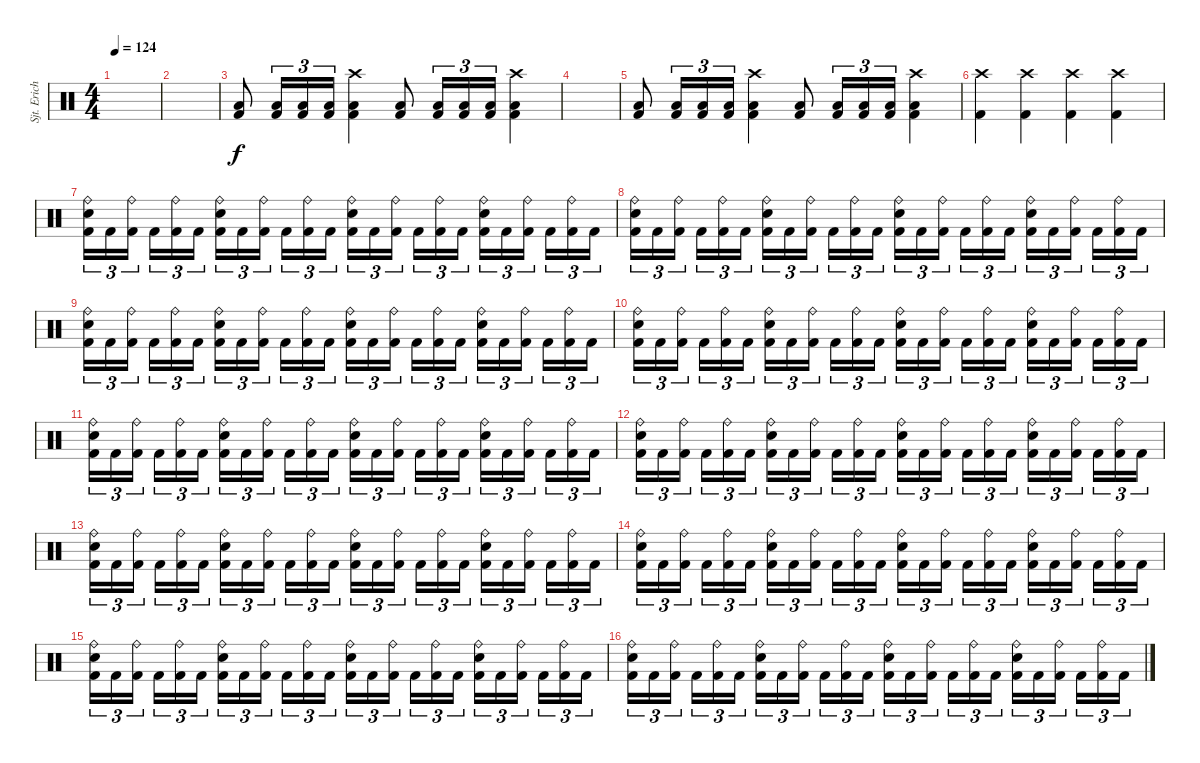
\track ("Sjt. Erichsen" "Sjt. Erich") {instrument percussion}
\staff {score}
\articulation defaults
\ts (4 4)
\tempo 124
\clef neutral
\ks c
|
|
("Low Floor Tom (hit)" "Kick (hit) 2").8 ("Low Floor Tom (hit)" "Kick (hit) 2").16{tu (3 2)} ("Low Floor Tom (hit)" "Kick (hit) 2").16{tu (3 2)} ("Low Floor Tom (hit)" "Kick (hit) 2").16{tu (3 2)} ("Crash high (hit)" "Low Floor Tom (hit)" "Kick (hit) 2").4 ("Low Floor Tom (hit)" "Kick (hit) 2").8 ("Low Floor Tom (hit)" "Kick (hit) 2").16{tu (3 2)} ("Low Floor Tom (hit)" "Kick (hit) 2").16{tu (3 2)} ("Low Floor Tom (hit)" "Kick (hit) 2").16{tu (3 2)} ("Crash high (hit)" "Low Floor Tom (hit)" "Kick (hit) 2").4 |
|
("Low Floor Tom (hit)" "Kick (hit) 2").8 ("Low Floor Tom (hit)" "Kick (hit) 2").16{tu (3 2)} ("Low Floor Tom (hit)" "Kick (hit) 2").16{tu (3 2)} ("Low Floor Tom (hit)" "Kick (hit) 2").16{tu (3 2)} ("Crash high (hit)" "Low Floor Tom (hit)" "Kick (hit) 2").4 ("Low Floor Tom (hit)" "Kick (hit) 2").8 ("Low Floor Tom (hit)" "Kick (hit) 2").16{tu (3 2)} ("Low Floor Tom (hit)" "Kick (hit) 2").16{tu (3 2)} ("Low Floor Tom (hit)" "Kick (hit) 2").16{tu (3 2)} ("Crash high (hit)" "Low Floor Tom (hit)" "Kick (hit) 2").4 |
("Crash high (hit)" "Kick (hit) 2").4 ("Crash high (hit)" "Kick (hit) 2").4 ("Crash high (hit)" "Kick (hit) 2").4 ("Crash high (hit)" "Kick (hit) 2").4 |
("Ride (bell)" "Electric Snare (hit)" "Kick (hit) 2").16{tu (3 2)} "Kick (hit) 2".16{tu (3 2)} ("Ride (bell)" "Kick (hit) 2").16{tu (3 2) beam splitsecondary} "Kick (hit) 2".16{tu (3 2)} ("Ride (bell)" "Kick (hit) 2").16{tu (3 2)} "Kick (hit) 2".16{tu (3 2)} ("Ride (bell)" "Electric Snare (hit)" "Kick (hit) 2").16{tu (3 2)} "Kick (hit) 2".16{tu (3 2)} ("Ride (bell)" "Kick (hit) 2").16{tu (3 2) beam splitsecondary} "Kick (hit) 2".16{tu (3 2)} ("Ride (bell)" "Kick (hit) 2").16{tu (3 2)} "Kick (hit) 2".16{tu (3 2)} ("Ride (bell)" "Electric Snare (hit)" "Kick (hit) 2").16{tu (3 2)} "Kick (hit) 2".16{tu (3 2)} ("Ride (bell)" "Kick (hit) 2").16{tu (3 2) beam splitsecondary} "Kick (hit) 2".16{tu (3 2)} ("Ride (bell)" "Kick (hit) 2").16{tu (3 2)} "Kick (hit) 2".16{tu (3 2)} ("Ride (bell)" "Electric Snare (hit)" "Kick (hit) 2").16{tu (3 2)} "Kick (hit) 2".16{tu (3 2)} ("Ride (bell)" "Kick (hit) 2").16{tu (3 2) beam splitsecondary} "Kick (hit) 2".16{tu (3 2)} ("Ride (bell)" "Kick (hit) 2").16{tu (3 2)} "Kick (hit) 2".16{tu (3 2)} |
("Ride (bell)" "Electric Snare (hit)" "Kick (hit) 2").16{tu (3 2)} "Kick (hit) 2".16{tu (3 2)} ("Ride (bell)" "Kick (hit) 2").16{tu (3 2) beam splitsecondary} "Kick (hit) 2".16{tu (3 2)} ("Ride (bell)" "Kick (hit) 2").16{tu (3 2)} "Kick (hit) 2".16{tu (3 2)} ("Ride (bell)" "Electric Snare (hit)" "Kick (hit) 2").16{tu (3 2)} "Kick (hit) 2".16{tu (3 2)} ("Ride (bell)" "Kick (hit) 2").16{tu (3 2) beam splitsecondary} "Kick (hit) 2".16{tu (3 2)} ("Ride (bell)" "Kick (hit) 2").16{tu (3 2)} "Kick (hit) 2".16{tu (3 2)} ("Ride (bell)" "Electric Snare (hit)" "Kick (hit) 2").16{tu (3 2)} "Kick (hit) 2".16{tu (3 2)} ("Ride (bell)" "Kick (hit) 2").16{tu (3 2) beam splitsecondary} "Kick (hit) 2".16{tu (3 2)} ("Ride (bell)" "Kick (hit) 2").16{tu (3 2)} "Kick (hit) 2".16{tu (3 2)} ("Ride (bell)" "Electric Snare (hit)" "Kick (hit) 2").16{tu (3 2)} "Kick (hit) 2".16{tu (3 2)} ("Ride (bell)" "Kick (hit) 2").16{tu (3 2) beam splitsecondary} "Kick (hit) 2".16{tu (3 2)} ("Ride (bell)" "Kick (hit) 2").16{tu (3 2)} "Kick (hit) 2".16{tu (3 2)} |
("Ride (bell)" "Electric Snare (hit)" "Kick (hit) 2").16{tu (3 2)} "Kick (hit) 2".16{tu (3 2)} ("Ride (bell)" "Kick (hit) 2").16{tu (3 2) beam splitsecondary} "Kick (hit) 2".16{tu (3 2)} ("Ride (bell)" "Kick (hit) 2").16{tu (3 2)} "Kick (hit) 2".16{tu (3 2)} ("Ride (bell)" "Electric Snare (hit)" "Kick (hit) 2").16{tu (3 2)} "Kick (hit) 2".16{tu (3 2)} ("Ride (bell)" "Kick (hit) 2").16{tu (3 2) beam splitsecondary} "Kick (hit) 2".16{tu (3 2)} ("Ride (bell)" "Kick (hit) 2").16{tu (3 2)} "Kick (hit) 2".16{tu (3 2)} ("Ride (bell)" "Electric Snare (hit)" "Kick (hit) 2").16{tu (3 2)} "Kick (hit) 2".16{tu (3 2)} ("Ride (bell)" "Kick (hit) 2").16{tu (3 2) beam splitsecondary} "Kick (hit) 2".16{tu (3 2)} ("Ride (bell)" "Kick (hit) 2").16{tu (3 2)} "Kick (hit) 2".16{tu (3 2)} ("Ride (bell)" "Electric Snare (hit)" "Kick (hit) 2").16{tu (3 2)} "Kick (hit) 2".16{tu (3 2)} ("Ride (bell)" "Kick (hit) 2").16{tu (3 2) beam splitsecondary} "Kick (hit) 2".16{tu (3 2)} ("Ride (bell)" "Kick (hit) 2").16{tu (3 2)} "Kick (hit) 2".16{tu (3 2)} |
("Ride (bell)" "Electric Snare (hit)" "Kick (hit) 2").16{tu (3 2)} "Kick (hit) 2".16{tu (3 2)} ("Ride (bell)" "Kick (hit) 2").16{tu (3 2) beam splitsecondary} "Kick (hit) 2".16{tu (3 2)} ("Ride (bell)" "Kick (hit) 2").16{tu (3 2)} "Kick (hit) 2".16{tu (3 2)} ("Ride (bell)" "Electric Snare (hit)" "Kick (hit) 2").16{tu (3 2)} "Kick (hit) 2".16{tu (3 2)} ("Ride (bell)" "Kick (hit) 2").16{tu (3 2) beam splitsecondary} "Kick (hit) 2".16{tu (3 2)} ("Ride (bell)" "Kick (hit) 2").16{tu (3 2)} "Kick (hit) 2".16{tu (3 2)} ("Ride (bell)" "Electric Snare (hit)" "Kick (hit) 2").16{tu (3 2)} "Kick (hit) 2".16{tu (3 2)} ("Ride (bell)" "Kick (hit) 2").16{tu (3 2) beam splitsecondary} "Kick (hit) 2".16{tu (3 2)} ("Ride (bell)" "Kick (hit) 2").16{tu (3 2)} "Kick (hit) 2".16{tu (3 2)} ("Ride (bell)" "Electric Snare (hit)" "Kick (hit) 2").16{tu (3 2)} "Kick (hit) 2".16{tu (3 2)} ("Ride (bell)" "Kick (hit) 2").16{tu (3 2) beam splitsecondary} "Kick (hit) 2".16{tu (3 2)} ("Ride (bell)" "Kick (hit) 2").16{tu (3 2)} "Kick (hit) 2".16{tu (3 2)} |
("Ride (bell)" "Electric Snare (hit)" "Kick (hit) 2").16{tu (3 2)} "Kick (hit) 2".16{tu (3 2)} ("Ride (bell)" "Kick (hit) 2").16{tu (3 2) beam splitsecondary} "Kick (hit) 2".16{tu (3 2)} ("Ride (bell)" "Kick (hit) 2").16{tu (3 2)} "Kick (hit) 2".16{tu (3 2)} ("Ride (bell)" "Electric Snare (hit)" "Kick (hit) 2").16{tu (3 2)} "Kick (hit) 2".16{tu (3 2)} ("Ride (bell)" "Kick (hit) 2").16{tu (3 2) beam splitsecondary} "Kick (hit) 2".16{tu (3 2)} ("Ride (bell)" "Kick (hit) 2").16{tu (3 2)} "Kick (hit) 2".16{tu (3 2)} ("Ride (bell)" "Electric Snare (hit)" "Kick (hit) 2").16{tu (3 2)} "Kick (hit) 2".16{tu (3 2)} ("Ride (bell)" "Kick (hit) 2").16{tu (3 2) beam splitsecondary} "Kick (hit) 2".16{tu (3 2)} ("Ride (bell)" "Kick (hit) 2").16{tu (3 2)} "Kick (hit) 2".16{tu (3 2)} ("Ride (bell)" "Electric Snare (hit)" "Kick (hit) 2").16{tu (3 2)} "Kick (hit) 2".16{tu (3 2)} ("Ride (bell)" "Kick (hit) 2").16{tu (3 2) beam splitsecondary} "Kick (hit) 2".16{tu (3 2)} ("Ride (bell)" "Kick (hit) 2").16{tu (3 2)} "Kick (hit) 2".16{tu (3 2)} |
("Ride (bell)" "Electric Snare (hit)" "Kick (hit) 2").16{tu (3 2)} "Kick (hit) 2".16{tu (3 2)} ("Ride (bell)" "Kick (hit) 2").16{tu (3 2) beam splitsecondary} "Kick (hit) 2".16{tu (3 2)} ("Ride (bell)" "Kick (hit) 2").16{tu (3 2)} "Kick (hit) 2".16{tu (3 2)} ("Ride (bell)" "Electric Snare (hit)" "Kick (hit) 2").16{tu (3 2)} "Kick (hit) 2".16{tu (3 2)} ("Ride (bell)" "Kick (hit) 2").16{tu (3 2) beam splitsecondary} "Kick (hit) 2".16{tu (3 2)} ("Ride (bell)" "Kick (hit) 2").16{tu (3 2)} "Kick (hit) 2".16{tu (3 2)} ("Ride (bell)" "Electric Snare (hit)" "Kick (hit) 2").16{tu (3 2)} "Kick (hit) 2".16{tu (3 2)} ("Ride (bell)" "Kick (hit) 2").16{tu (3 2) beam splitsecondary} "Kick (hit) 2".16{tu (3 2)} ("Ride (bell)" "Kick (hit) 2").16{tu (3 2)} "Kick (hit) 2".16{tu (3 2)} ("Ride (bell)" "Electric Snare (hit)" "Kick (hit) 2").16{tu (3 2)} "Kick (hit) 2".16{tu (3 2)} ("Ride (bell)" "Kick (hit) 2").16{tu (3 2) beam splitsecondary} "Kick (hit) 2".16{tu (3 2)} ("Ride (bell)" "Kick (hit) 2").16{tu (3 2)} "Kick (hit) 2".16{tu (3 2)} |
("Ride (bell)" "Electric Snare (hit)" "Kick (hit) 2").16{tu (3 2)} "Kick (hit) 2".16{tu (3 2)} ("Ride (bell)" "Kick (hit) 2").16{tu (3 2) beam splitsecondary} "Kick (hit) 2".16{tu (3 2)} ("Ride (bell)" "Kick (hit) 2").16{tu (3 2)} "Kick (hit) 2".16{tu (3 2)} ("Ride (bell)" "Electric Snare (hit)" "Kick (hit) 2").16{tu (3 2)} "Kick (hit) 2".16{tu (3 2)} ("Ride (bell)" "Kick (hit) 2").16{tu (3 2) beam splitsecondary} "Kick (hit) 2".16{tu (3 2)} ("Ride (bell)" "Kick (hit) 2").16{tu (3 2)} "Kick (hit) 2".16{tu (3 2)} ("Ride (bell)" "Electric Snare (hit)" "Kick (hit) 2").16{tu (3 2)} "Kick (hit) 2".16{tu (3 2)} ("Ride (bell)" "Kick (hit) 2").16{tu (3 2) beam splitsecondary} "Kick (hit) 2".16{tu (3 2)} ("Ride (bell)" "Kick (hit) 2").16{tu (3 2)} "Kick (hit) 2".16{tu (3 2)} ("Ride (bell)" "Electric Snare (hit)" "Kick (hit) 2").16{tu (3 2)} "Kick (hit) 2".16{tu (3 2)} ("Ride (bell)" "Kick (hit) 2").16{tu (3 2) beam splitsecondary} "Kick (hit) 2".16{tu (3 2)} ("Ride (bell)" "Kick (hit) 2").16{tu (3 2)} "Kick (hit) 2".16{tu (3 2)} |
("Ride (bell)" "Electric Snare (hit)" "Kick (hit) 2").16{tu (3 2)} "Kick (hit) 2".16{tu (3 2)} ("Ride (bell)" "Kick (hit) 2").16{tu (3 2) beam splitsecondary} "Kick (hit) 2".16{tu (3 2)} ("Ride (bell)" "Kick (hit) 2").16{tu (3 2)} "Kick (hit) 2".16{tu (3 2)} ("Ride (bell)" "Electric Snare (hit)" "Kick (hit) 2").16{tu (3 2)} "Kick (hit) 2".16{tu (3 2)} ("Ride (bell)" "Kick (hit) 2").16{tu (3 2) beam splitsecondary} "Kick (hit) 2".16{tu (3 2)} ("Ride (bell)" "Kick (hit) 2").16{tu (3 2)} "Kick (hit) 2".16{tu (3 2)} ("Ride (bell)" "Electric Snare (hit)" "Kick (hit) 2").16{tu (3 2)} "Kick (hit) 2".16{tu (3 2)} ("Ride (bell)" "Kick (hit) 2").16{tu (3 2) beam splitsecondary} "Kick (hit) 2".16{tu (3 2)} ("Ride (bell)" "Kick (hit) 2").16{tu (3 2)} "Kick (hit) 2".16{tu (3 2)} ("Ride (bell)" "Electric Snare (hit)" "Kick (hit) 2").16{tu (3 2)} "Kick (hit) 2".16{tu (3 2)} ("Ride (bell)" "Kick (hit) 2").16{tu (3 2) beam splitsecondary} "Kick (hit) 2".16{tu (3 2)} ("Ride (bell)" "Kick (hit) 2").16{tu (3 2)} "Kick (hit) 2".16{tu (3 2)} |
("Ride (bell)" "Electric Snare (hit)" "Kick (hit) 2").16{tu (3 2)} "Kick (hit) 2".16{tu (3 2)} ("Ride (bell)" "Kick (hit) 2").16{tu (3 2) beam splitsecondary} "Kick (hit) 2".16{tu (3 2)} ("Ride (bell)" "Kick (hit) 2").16{tu (3 2)} "Kick (hit) 2".16{tu (3 2)} ("Ride (bell)" "Electric Snare (hit)" "Kick (hit) 2").16{tu (3 2)} "Kick (hit) 2".16{tu (3 2)} ("Ride (bell)" "Kick (hit) 2").16{tu (3 2) beam splitsecondary} "Kick (hit) 2".16{tu (3 2)} ("Ride (bell)" "Kick (hit) 2").16{tu (3 2)} "Kick (hit) 2".16{tu (3 2)} ("Ride (bell)" "Electric Snare (hit)" "Kick (hit) 2").16{tu (3 2)} "Kick (hit) 2".16{tu (3 2)} ("Ride (bell)" "Kick (hit) 2").16{tu (3 2) beam splitsecondary} "Kick (hit) 2".16{tu (3 2)} ("Ride (bell)" "Kick (hit) 2").16{tu (3 2)} "Kick (hit) 2".16{tu (3 2)} ("Ride (bell)" "Electric Snare (hit)" "Kick (hit) 2").16{tu (3 2)} "Kick (hit) 2".16{tu (3 2)} ("Ride (bell)" "Kick (hit) 2").16{tu (3 2) beam splitsecondary} "Kick (hit) 2".16{tu (3 2)} ("Ride (bell)" "Kick (hit) 2").16{tu (3 2)} "Kick (hit) 2".16{tu (3 2)} |
("Ride (bell)" "Electric Snare (hit)" "Kick (hit) 2").16{tu (3 2)} "Kick (hit) 2".16{tu (3 2)} ("Ride (bell)" "Kick (hit) 2").16{tu (3 2) beam splitsecondary} "Kick (hit) 2".16{tu (3 2)} ("Ride (bell)" "Kick (hit) 2").16{tu (3 2)} "Kick (hit) 2".16{tu (3 2)} ("Ride (bell)" "Electric Snare (hit)" "Kick (hit) 2").16{tu (3 2)} "Kick (hit) 2".16{tu (3 2)} ("Ride (bell)" "Kick (hit) 2").16{tu (3 2) beam splitsecondary} "Kick (hit) 2".16{tu (3 2)} ("Ride (bell)" "Kick (hit) 2").16{tu (3 2)} "Kick (hit) 2".16{tu (3 2)} ("Ride (bell)" "Electric Snare (hit)" "Kick (hit) 2").16{tu (3 2)} "Kick (hit) 2".16{tu (3 2)} ("Ride (bell)" "Kick (hit) 2").16{tu (3 2) beam splitsecondary} "Kick (hit) 2".16{tu (3 2)} ("Ride (bell)" "Kick (hit) 2").16{tu (3 2)} "Kick (hit) 2".16{tu (3 2)} ("Ride (bell)" "Electric Snare (hit)" "Kick (hit) 2").16{tu (3 2)} "Kick (hit) 2".16{tu (3 2)} ("Ride (bell)" "Kick (hit) 2").16{tu (3 2) beam splitsecondary} "Kick (hit) 2".16{tu (3 2)} ("Ride (bell)" "Kick (hit) 2").16{tu (3 2)} "Kick (hit) 2".16{tu (3 2)}
